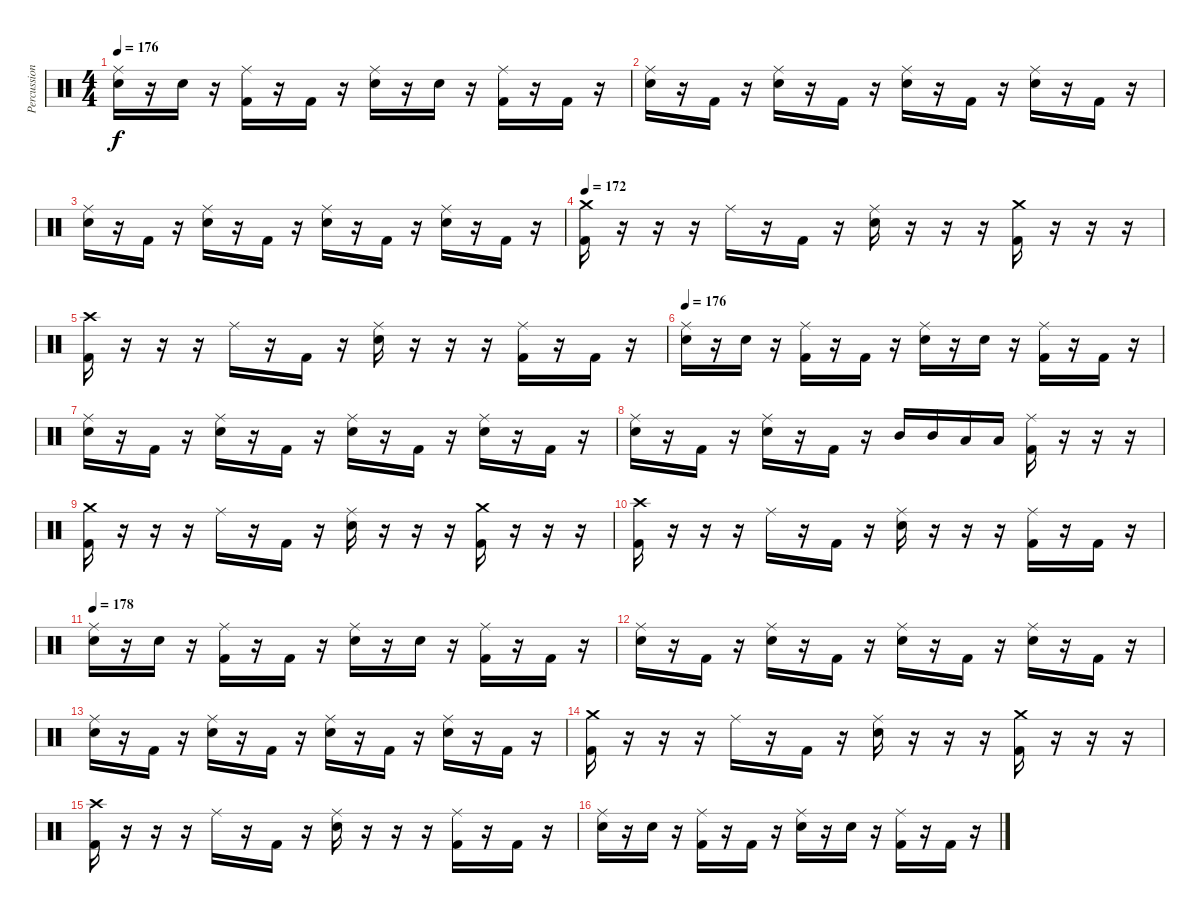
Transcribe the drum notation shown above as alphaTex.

\track ("Percussion" "Percussion") {instrument percussion}
\staff {score}
\articulation defaults
\ts (4 4)
\tempo 176
\clef neutral
\ks c
("Ride (middle)" "Electric Snare (hit)").16{dy f} r.16 "Electric Snare (hit)".16 r.16 ("Ride (middle)" "Kick (hit) 2").16 r.16 "Kick (hit) 2".16 r.16 ("Ride (middle)" "Electric Snare (hit)").16 r.16 "Electric Snare (hit)".16 r.16 ("Ride (middle)" "Kick (hit) 2").16 r.16 "Kick (hit) 2".16 r.16 |
("Ride (middle)" "Electric Snare (hit)").16 r.16 "Kick (hit) 2".16 r.16 ("Ride (middle)" "Electric Snare (hit)").16 r.16 "Kick (hit) 2".16 r.16 ("Ride (middle)" "Electric Snare (hit)").16 r.16 "Kick (hit) 2".16 r.16 ("Ride (middle)" "Electric Snare (hit)").16 r.16 "Kick (hit) 2".16 r.16 |
("Ride (middle)" "Electric Snare (hit)").16 r.16 "Kick (hit) 2".16 r.16 ("Ride (middle)" "Electric Snare (hit)").16 r.16 "Kick (hit) 2".16 r.16 ("Ride (middle)" "Electric Snare (hit)").16 r.16 "Kick (hit) 2".16 r.16 ("Ride (middle)" "Electric Snare (hit)").16 r.16 "Kick (hit) 2".16 r.16 |
\tempo 172
("Crash medium (hit)" "Kick (hit) 2").16 r.16 r.16 r.16 "Ride (middle)".16 r.16 "Kick (hit) 2".16 r.16 ("Ride (middle)" "Electric Snare (hit)").16 r.16 r.16 r.16 ("Crash medium (hit)" "Kick (hit) 2").16 r.16 r.16 r.16 |
("Crash high (hit)" "Kick (hit) 2").16 r.16 r.16 r.16 "Ride (middle)".16 r.16 "Kick (hit) 2".16 r.16 ("Ride (middle)" "Electric Snare (hit)").16 r.16 r.16 r.16 ("Ride (middle)" "Kick (hit) 2").16 r.16 "Kick (hit) 2".16 r.16 |
\tempo 176
("Ride (middle)" "Electric Snare (hit)").16 r.16 "Electric Snare (hit)".16 r.16 ("Ride (middle)" "Kick (hit) 2").16 r.16 "Kick (hit) 2".16 r.16 ("Ride (middle)" "Electric Snare (hit)").16 r.16 "Electric Snare (hit)".16 r.16 ("Ride (middle)" "Kick (hit) 2").16 r.16 "Kick (hit) 2".16 r.16 |
("Ride (middle)" "Electric Snare (hit)").16 r.16 "Kick (hit) 2".16 r.16 ("Ride (middle)" "Electric Snare (hit)").16 r.16 "Kick (hit) 2".16 r.16 ("Ride (middle)" "Electric Snare (hit)").16 r.16 "Kick (hit) 2".16 r.16 ("Ride (middle)" "Electric Snare (hit)").16 r.16 "Kick (hit) 2".16 r.16 |
("Ride (middle)" "Electric Snare (hit)").16 r.16 "Kick (hit) 2".16 r.16 ("Ride (middle)" "Electric Snare (hit)").16 r.16 "Kick (hit) 2".16 r.16 "Mid Tom (hit)".16 "Mid Tom (hit)".16 "Low Tom (hit)".16 "Low Tom (hit)".16 ("Ride (middle)" "Kick (hit) 2").16 r.16 r.16 r.16 |
("Crash medium (hit)" "Kick (hit) 2").16 r.16 r.16 r.16 "Ride (middle)".16 r.16 "Kick (hit) 2".16 r.16 ("Ride (middle)" "Electric Snare (hit)").16 r.16 r.16 r.16 ("Crash medium (hit)" "Kick (hit) 2").16 r.16 r.16 r.16 |
("Crash high (hit)" "Kick (hit) 2").16 r.16 r.16 r.16 "Ride (middle)".16 r.16 "Kick (hit) 2".16 r.16 ("Ride (middle)" "Electric Snare (hit)").16 r.16 r.16 r.16 ("Ride (middle)" "Kick (hit) 2").16 r.16 "Kick (hit) 2".16 r.16 |
\tempo 178
("Ride (middle)" "Electric Snare (hit)").16 r.16 "Electric Snare (hit)".16 r.16 ("Ride (middle)" "Kick (hit) 2").16 r.16 "Kick (hit) 2".16 r.16 ("Ride (middle)" "Electric Snare (hit)").16 r.16 "Electric Snare (hit)".16 r.16 ("Ride (middle)" "Kick (hit) 2").16 r.16 "Kick (hit) 2".16 r.16 |
("Ride (middle)" "Electric Snare (hit)").16 r.16 "Kick (hit) 2".16 r.16 ("Ride (middle)" "Electric Snare (hit)").16 r.16 "Kick (hit) 2".16 r.16 ("Ride (middle)" "Electric Snare (hit)").16 r.16 "Kick (hit) 2".16 r.16 ("Ride (middle)" "Electric Snare (hit)").16 r.16 "Kick (hit) 2".16 r.16 |
("Ride (middle)" "Electric Snare (hit)").16 r.16 "Kick (hit) 2".16 r.16 ("Ride (middle)" "Electric Snare (hit)").16 r.16 "Kick (hit) 2".16 r.16 ("Ride (middle)" "Electric Snare (hit)").16 r.16 "Kick (hit) 2".16 r.16 ("Ride (middle)" "Electric Snare (hit)").16 r.16 "Kick (hit) 2".16 r.16 |
("Crash medium (hit)" "Kick (hit) 2").16 r.16 r.16 r.16 "Ride (middle)".16 r.16 "Kick (hit) 2".16 r.16 ("Ride (middle)" "Electric Snare (hit)").16 r.16 r.16 r.16 ("Crash medium (hit)" "Kick (hit) 2").16 r.16 r.16 r.16 |
("Crash high (hit)" "Kick (hit) 2").16 r.16 r.16 r.16 "Ride (middle)".16 r.16 "Kick (hit) 2".16 r.16 ("Ride (middle)" "Electric Snare (hit)").16 r.16 r.16 r.16 ("Ride (middle)" "Kick (hit) 2").16 r.16 "Kick (hit) 2".16 r.16 |
("Ride (middle)" "Electric Snare (hit)").16 r.16 "Electric Snare (hit)".16 r.16 ("Ride (middle)" "Kick (hit) 2").16 r.16 "Kick (hit) 2".16 r.16 ("Ride (middle)" "Electric Snare (hit)").16 r.16 "Electric Snare (hit)".16 r.16 ("Ride (middle)" "Kick (hit) 2").16 r.16 "Kick (hit) 2".16 r.16
